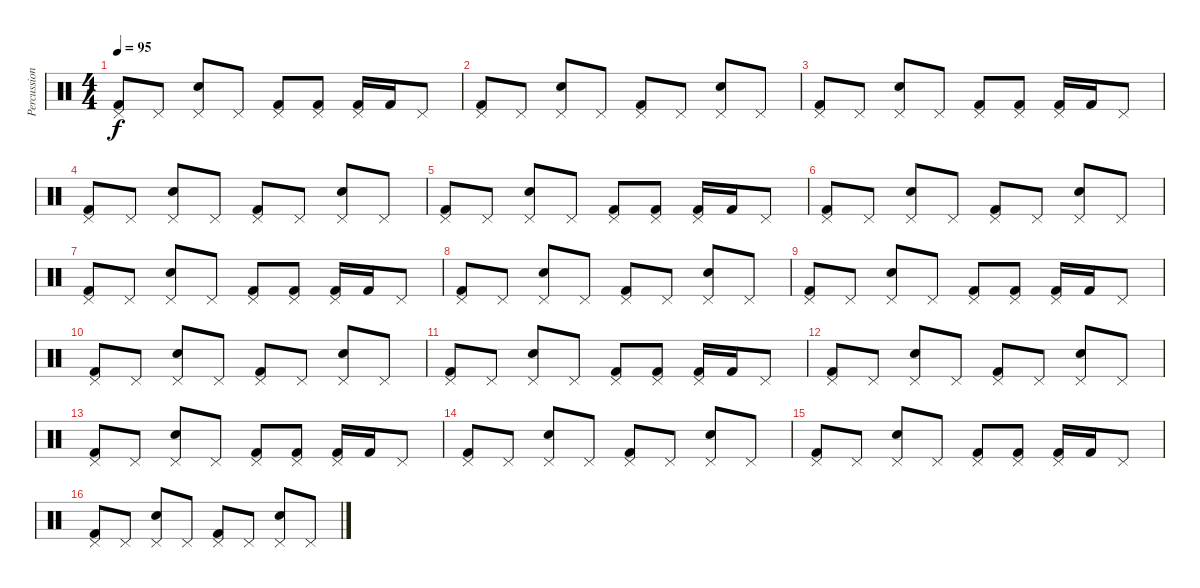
\track ("Percussions" "Percussion") {instrument percussion}
\staff {score}
\articulation defaults
\ts (4 4)
\tempo 95
\clef neutral
\ks c
("Pedal Hi-Hat (hit)" "Kick (hit) 2").8{dy f} "Pedal Hi-Hat (hit)".8 ("Pedal Hi-Hat (hit)" "Electric Snare (hit)").8 "Pedal Hi-Hat (hit)".8 ("Pedal Hi-Hat (hit)" "Kick (hit) 2").8 ("Pedal Hi-Hat (hit)" "Kick (hit) 2").8 ("Pedal Hi-Hat (hit)" "Kick (hit) 2").16 "Kick (hit) 2".16 "Pedal Hi-Hat (hit)".8 |
("Pedal Hi-Hat (hit)" "Kick (hit) 2").8 "Pedal Hi-Hat (hit)".8 ("Pedal Hi-Hat (hit)" "Electric Snare (hit)").8 "Pedal Hi-Hat (hit)".8 ("Pedal Hi-Hat (hit)" "Kick (hit) 2").8 "Pedal Hi-Hat (hit)".8 ("Pedal Hi-Hat (hit)" "Electric Snare (hit)").8 "Pedal Hi-Hat (hit)".8 |
("Pedal Hi-Hat (hit)" "Kick (hit) 2").8 "Pedal Hi-Hat (hit)".8 ("Pedal Hi-Hat (hit)" "Electric Snare (hit)").8 "Pedal Hi-Hat (hit)".8 ("Pedal Hi-Hat (hit)" "Kick (hit) 2").8 ("Pedal Hi-Hat (hit)" "Kick (hit) 2").8 ("Pedal Hi-Hat (hit)" "Kick (hit) 2").16 "Kick (hit) 2".16 "Pedal Hi-Hat (hit)".8 |
("Pedal Hi-Hat (hit)" "Kick (hit) 2").8 "Pedal Hi-Hat (hit)".8 ("Pedal Hi-Hat (hit)" "Electric Snare (hit)").8 "Pedal Hi-Hat (hit)".8 ("Pedal Hi-Hat (hit)" "Kick (hit) 2").8 "Pedal Hi-Hat (hit)".8 ("Pedal Hi-Hat (hit)" "Electric Snare (hit)").8 "Pedal Hi-Hat (hit)".8 |
("Pedal Hi-Hat (hit)" "Kick (hit) 2").8 "Pedal Hi-Hat (hit)".8 ("Pedal Hi-Hat (hit)" "Electric Snare (hit)").8 "Pedal Hi-Hat (hit)".8 ("Pedal Hi-Hat (hit)" "Kick (hit) 2").8 ("Pedal Hi-Hat (hit)" "Kick (hit) 2").8 ("Pedal Hi-Hat (hit)" "Kick (hit) 2").16 "Kick (hit) 2".16 "Pedal Hi-Hat (hit)".8 |
("Pedal Hi-Hat (hit)" "Kick (hit) 2").8 "Pedal Hi-Hat (hit)".8 ("Pedal Hi-Hat (hit)" "Electric Snare (hit)").8 "Pedal Hi-Hat (hit)".8 ("Pedal Hi-Hat (hit)" "Kick (hit) 2").8 "Pedal Hi-Hat (hit)".8 ("Pedal Hi-Hat (hit)" "Electric Snare (hit)").8 "Pedal Hi-Hat (hit)".8 |
("Pedal Hi-Hat (hit)" "Kick (hit) 2").8 "Pedal Hi-Hat (hit)".8 ("Pedal Hi-Hat (hit)" "Electric Snare (hit)").8 "Pedal Hi-Hat (hit)".8 ("Pedal Hi-Hat (hit)" "Kick (hit) 2").8 ("Pedal Hi-Hat (hit)" "Kick (hit) 2").8 ("Pedal Hi-Hat (hit)" "Kick (hit) 2").16 "Kick (hit) 2".16 "Pedal Hi-Hat (hit)".8 |
("Pedal Hi-Hat (hit)" "Kick (hit) 2").8 "Pedal Hi-Hat (hit)".8 ("Pedal Hi-Hat (hit)" "Electric Snare (hit)").8 "Pedal Hi-Hat (hit)".8 ("Pedal Hi-Hat (hit)" "Kick (hit) 2").8 "Pedal Hi-Hat (hit)".8 ("Pedal Hi-Hat (hit)" "Electric Snare (hit)").8 "Pedal Hi-Hat (hit)".8 |
("Pedal Hi-Hat (hit)" "Kick (hit) 2").8 "Pedal Hi-Hat (hit)".8 ("Pedal Hi-Hat (hit)" "Electric Snare (hit)").8 "Pedal Hi-Hat (hit)".8 ("Pedal Hi-Hat (hit)" "Kick (hit) 2").8 ("Pedal Hi-Hat (hit)" "Kick (hit) 2").8 ("Pedal Hi-Hat (hit)" "Kick (hit) 2").16 "Kick (hit) 2".16 "Pedal Hi-Hat (hit)".8 |
("Pedal Hi-Hat (hit)" "Kick (hit) 2").8 "Pedal Hi-Hat (hit)".8 ("Pedal Hi-Hat (hit)" "Electric Snare (hit)").8 "Pedal Hi-Hat (hit)".8 ("Pedal Hi-Hat (hit)" "Kick (hit) 2").8 "Pedal Hi-Hat (hit)".8 ("Pedal Hi-Hat (hit)" "Electric Snare (hit)").8 "Pedal Hi-Hat (hit)".8 |
("Pedal Hi-Hat (hit)" "Kick (hit) 2").8 "Pedal Hi-Hat (hit)".8 ("Pedal Hi-Hat (hit)" "Electric Snare (hit)").8 "Pedal Hi-Hat (hit)".8 ("Pedal Hi-Hat (hit)" "Kick (hit) 2").8 ("Pedal Hi-Hat (hit)" "Kick (hit) 2").8 ("Pedal Hi-Hat (hit)" "Kick (hit) 2").16 "Kick (hit) 2".16 "Pedal Hi-Hat (hit)".8 |
("Pedal Hi-Hat (hit)" "Kick (hit) 2").8 "Pedal Hi-Hat (hit)".8 ("Pedal Hi-Hat (hit)" "Electric Snare (hit)").8 "Pedal Hi-Hat (hit)".8 ("Pedal Hi-Hat (hit)" "Kick (hit) 2").8 "Pedal Hi-Hat (hit)".8 ("Pedal Hi-Hat (hit)" "Electric Snare (hit)").8 "Pedal Hi-Hat (hit)".8 |
("Pedal Hi-Hat (hit)" "Kick (hit) 2").8 "Pedal Hi-Hat (hit)".8 ("Pedal Hi-Hat (hit)" "Electric Snare (hit)").8 "Pedal Hi-Hat (hit)".8 ("Pedal Hi-Hat (hit)" "Kick (hit) 2").8 ("Pedal Hi-Hat (hit)" "Kick (hit) 2").8 ("Pedal Hi-Hat (hit)" "Kick (hit) 2").16 "Kick (hit) 2".16 "Pedal Hi-Hat (hit)".8 |
("Pedal Hi-Hat (hit)" "Kick (hit) 2").8 "Pedal Hi-Hat (hit)".8 ("Pedal Hi-Hat (hit)" "Electric Snare (hit)").8 "Pedal Hi-Hat (hit)".8 ("Pedal Hi-Hat (hit)" "Kick (hit) 2").8 "Pedal Hi-Hat (hit)".8 ("Pedal Hi-Hat (hit)" "Electric Snare (hit)").8 "Pedal Hi-Hat (hit)".8 |
("Pedal Hi-Hat (hit)" "Kick (hit) 2").8 "Pedal Hi-Hat (hit)".8 ("Pedal Hi-Hat (hit)" "Electric Snare (hit)").8 "Pedal Hi-Hat (hit)".8 ("Pedal Hi-Hat (hit)" "Kick (hit) 2").8 ("Pedal Hi-Hat (hit)" "Kick (hit) 2").8 ("Pedal Hi-Hat (hit)" "Kick (hit) 2").16 "Kick (hit) 2".16 "Pedal Hi-Hat (hit)".8 |
("Pedal Hi-Hat (hit)" "Kick (hit) 2").8 "Pedal Hi-Hat (hit)".8 ("Pedal Hi-Hat (hit)" "Electric Snare (hit)").8 "Pedal Hi-Hat (hit)".8 ("Pedal Hi-Hat (hit)" "Kick (hit) 2").8 "Pedal Hi-Hat (hit)".8 ("Pedal Hi-Hat (hit)" "Electric Snare (hit)").8 "Pedal Hi-Hat (hit)".8
